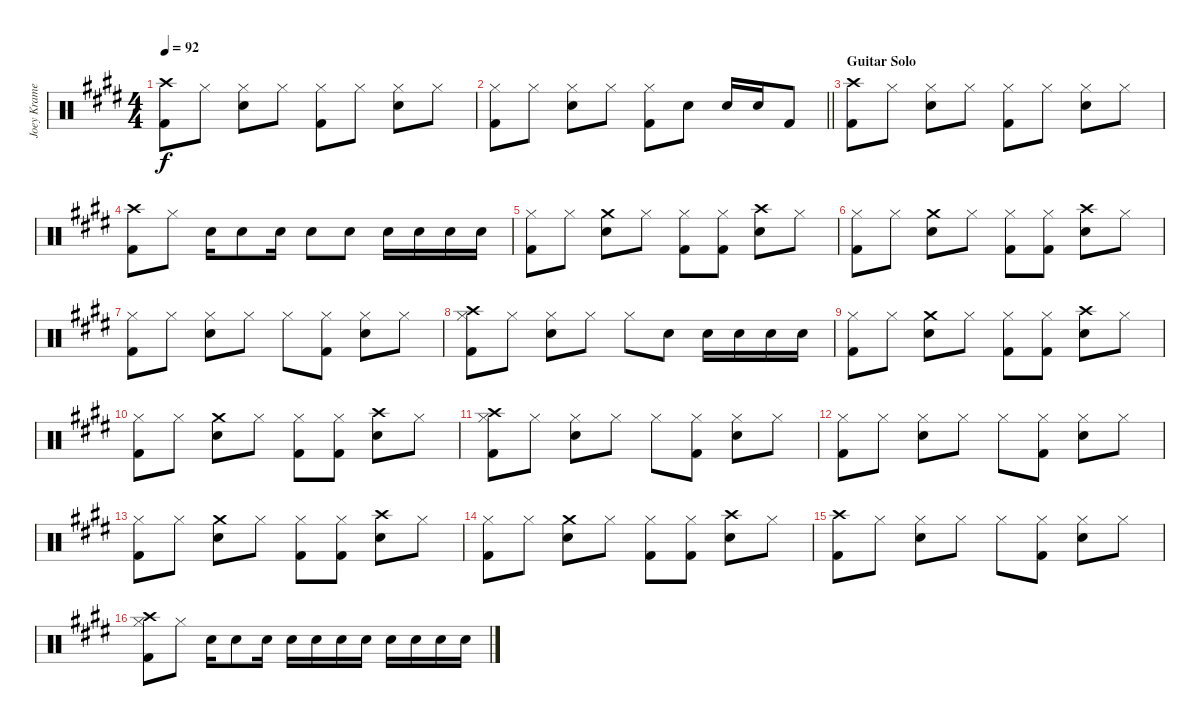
\track ("Joey Kramer" "Joey Krame") {instrument percussion}
\staff {score}
\articulation defaults
\ts (4 4)
\tempo 92
\clef neutral
\ks e
("Crash high (hit)" "Kick (hit) 2").8{dy f} "Hi-Hat (closed)".8 ("Hi-Hat (closed)" "Electric Snare (hit)").8 "Hi-Hat (closed)".8 ("Hi-Hat (closed)" "Kick (hit) 2").8 "Hi-Hat (closed)".8 ("Hi-Hat (closed)" "Electric Snare (hit)").8 "Hi-Hat (closed)".8 |
\barLineRight lightlight
("Hi-Hat (closed)" "Kick (hit) 2").8 "Hi-Hat (closed)".8 ("Hi-Hat (closed)" "Electric Snare (hit)").8 "Hi-Hat (closed)".8 ("Hi-Hat (closed)" "Kick (hit) 2").8 "Electric Snare (hit)".8 "Electric Snare (hit)".16 "Electric Snare (hit)".16 "Kick (hit) 2".8 |
\section ("" "Guitar Solo")
("Crash high (hit)" "Kick (hit) 2").8 "Hi-Hat (closed)".8 ("Hi-Hat (closed)" "Electric Snare (hit)").8 "Hi-Hat (closed)".8 ("Hi-Hat (closed)" "Kick (hit) 2").8 "Hi-Hat (closed)".8 ("Hi-Hat (closed)" "Electric Snare (hit)").8 "Hi-Hat (closed)".8 |
("Crash high (hit)" "Kick (hit) 2").8 "Hi-Hat (closed)".8 "Electric Snare (hit)".16 "Electric Snare (hit)".8 "Electric Snare (hit)".16 "Electric Snare (hit)".8 "Electric Snare (hit)".8 "Electric Snare (hit)".16 "Electric Snare (hit)".16 "Electric Snare (hit)".16 "Electric Snare (hit)".16 |
("Hi-Hat (closed)" "Kick (hit) 2").8 "Hi-Hat (closed)".8 ("Crash medium (hit)" "Electric Snare (hit)").8 "Hi-Hat (closed)".8 ("Hi-Hat (closed)" "Kick (hit) 2").8 ("Hi-Hat (closed)" "Kick (hit) 2").8 ("Crash high (hit)" "Electric Snare (hit)").8 "Hi-Hat (closed)".8 |
("Hi-Hat (closed)" "Kick (hit) 2").8 "Hi-Hat (closed)".8 ("Crash medium (hit)" "Electric Snare (hit)").8 "Hi-Hat (closed)".8 ("Hi-Hat (closed)" "Kick (hit) 2").8 ("Hi-Hat (closed)" "Kick (hit) 2").8 ("Crash high (hit)" "Electric Snare (hit)").8 "Hi-Hat (closed)".8 |
("Hi-Hat (closed)" "Kick (hit) 2").8 "Hi-Hat (closed)".8 ("Hi-Hat (closed)" "Electric Snare (hit)").8 "Hi-Hat (closed)".8 "Hi-Hat (closed)".8 ("Hi-Hat (closed)" "Kick (hit) 2").8 ("Hi-Hat (closed)" "Electric Snare (hit)").8 "Hi-Hat (closed)".8 |
("Crash high (hit)" "Hi-Hat (closed)" "Kick (hit) 2").8 "Hi-Hat (closed)".8 ("Hi-Hat (closed)" "Electric Snare (hit)").8 "Hi-Hat (closed)".8 "Hi-Hat (closed)".8 "Electric Snare (hit)".8 "Electric Snare (hit)".16 "Electric Snare (hit)".16 "Electric Snare (hit)".16 "Electric Snare (hit)".16 |
("Hi-Hat (closed)" "Kick (hit) 2").8 "Hi-Hat (closed)".8 ("Crash medium (hit)" "Electric Snare (hit)").8 "Hi-Hat (closed)".8 ("Hi-Hat (closed)" "Kick (hit) 2").8 ("Hi-Hat (closed)" "Kick (hit) 2").8 ("Crash high (hit)" "Electric Snare (hit)").8 "Hi-Hat (closed)".8 |
("Hi-Hat (closed)" "Kick (hit) 2").8 "Hi-Hat (closed)".8 ("Crash medium (hit)" "Electric Snare (hit)").8 "Hi-Hat (closed)".8 ("Hi-Hat (closed)" "Kick (hit) 2").8 ("Hi-Hat (closed)" "Kick (hit) 2").8 ("Crash high (hit)" "Electric Snare (hit)").8 "Hi-Hat (closed)".8 |
("Crash high (hit)" "Hi-Hat (closed)" "Kick (hit) 2").8 "Hi-Hat (closed)".8 ("Hi-Hat (closed)" "Electric Snare (hit)").8 "Hi-Hat (closed)".8 "Hi-Hat (closed)".8 ("Hi-Hat (closed)" "Kick (hit) 2").8 ("Hi-Hat (closed)" "Electric Snare (hit)").8 "Hi-Hat (closed)".8 |
("Hi-Hat (closed)" "Kick (hit) 2").8 "Hi-Hat (closed)".8 ("Hi-Hat (closed)" "Electric Snare (hit)").8 "Hi-Hat (closed)".8 "Hi-Hat (closed)".8 ("Hi-Hat (closed)" "Kick (hit) 2").8 ("Hi-Hat (closed)" "Electric Snare (hit)").8 "Hi-Hat (closed)".8 |
("Hi-Hat (closed)" "Kick (hit) 2").8 "Hi-Hat (closed)".8 ("Crash medium (hit)" "Electric Snare (hit)").8 "Hi-Hat (closed)".8 ("Hi-Hat (closed)" "Kick (hit) 2").8 ("Hi-Hat (closed)" "Kick (hit) 2").8 ("Crash high (hit)" "Electric Snare (hit)").8 "Hi-Hat (closed)".8 |
("Hi-Hat (closed)" "Kick (hit) 2").8 "Hi-Hat (closed)".8 ("Crash medium (hit)" "Electric Snare (hit)").8 "Hi-Hat (closed)".8 ("Hi-Hat (closed)" "Kick (hit) 2").8 ("Hi-Hat (closed)" "Kick (hit) 2").8 ("Crash high (hit)" "Electric Snare (hit)").8 "Hi-Hat (closed)".8 |
("Crash high (hit)" "Kick (hit) 2").8 "Hi-Hat (closed)".8 ("Hi-Hat (closed)" "Electric Snare (hit)").8 "Hi-Hat (closed)".8 "Hi-Hat (closed)".8 ("Hi-Hat (closed)" "Kick (hit) 2").8 ("Hi-Hat (closed)" "Electric Snare (hit)").8 "Hi-Hat (closed)".8 |
("Crash high (hit)" "Hi-Hat (closed)" "Kick (hit) 2").8 "Hi-Hat (closed)".8 "Electric Snare (hit)".16 "Electric Snare (hit)".8 "Electric Snare (hit)".16 "Electric Snare (hit)".16 "Electric Snare (hit)".16 "Electric Snare (hit)".16 "Electric Snare (hit)".16 "Electric Snare (hit)".16 "Electric Snare (hit)".16 "Electric Snare (hit)".16 "Electric Snare (hit)".16
